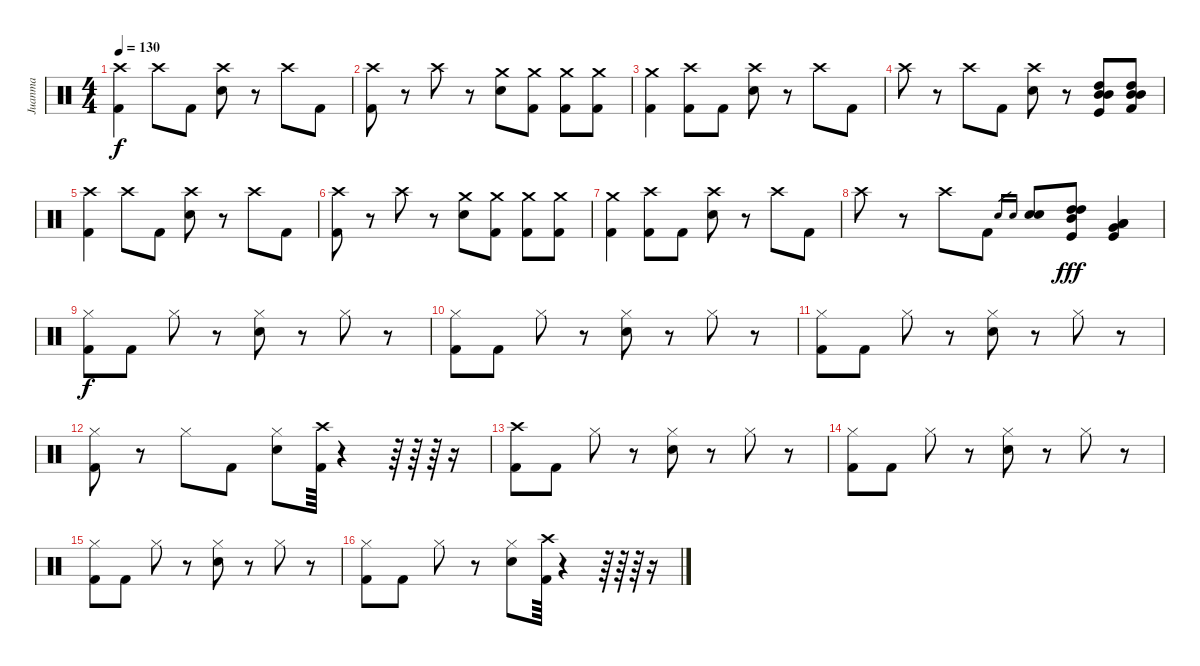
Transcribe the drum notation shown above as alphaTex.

\track ("Juanma" "Juanma") {instrument percussion}
\staff {score}
\articulation defaults
\ts (4 4)
\tempo 130
\clef neutral
\ks c
("Crash high (hit)" "Kick (hit) 2").4{dy f} "Crash high (hit)".8 "Kick (hit) 2".8 ("Crash high (hit)" "Electric Snare (hit)").8 r.8 "Crash high (hit)".8 "Kick (hit) 2".8 |
("Crash high (hit)" "Kick (hit) 2").8 r.8 "Crash high (hit)".8 r.8 ("Crash medium (hit)" "Electric Snare (hit)").8 ("Crash medium (hit)" "Kick (hit) 2").8 ("Crash medium (hit)" "Kick (hit) 2").8 ("Crash medium (hit)" "Kick (hit) 2").8 |
("Crash medium (hit)" "Kick (hit) 2").4 ("Crash high (hit)" "Kick (hit) 2").8 "Kick (hit) 2".8 ("Crash high (hit)" "Electric Snare (hit)").8 r.8 "Crash high (hit)".8 "Kick (hit) 2".8 |
"Crash high (hit)".8 r.8 "Crash high (hit)".8 "Kick (hit) 2".8 ("Crash high (hit)" "Electric Snare (hit)").8 r.8 ("Kick (hit)" "Mid Tom (hit)" "Mid Tom (hit)" "High Tom (hit)").8 ("Kick (hit) 2" "Mid Tom (hit)" "Mid Tom (hit)" "High Tom (hit)").8 |
("Crash high (hit)" "Kick (hit) 2").4 "Crash high (hit)".8 "Kick (hit) 2".8 ("Crash high (hit)" "Electric Snare (hit)").8 r.8 "Crash high (hit)".8 "Kick (hit) 2".8 |
("Crash high (hit)" "Kick (hit) 2").8 r.8 "Crash high (hit)".8 r.8 ("Crash medium (hit)" "Electric Snare (hit)").8 ("Crash medium (hit)" "Kick (hit) 2").8 ("Crash medium (hit)" "Kick (hit) 2").8 ("Crash medium (hit)" "Kick (hit) 2").8 |
("Crash medium (hit)" "Kick (hit) 2").4 ("Crash high (hit)" "Kick (hit) 2").8 "Kick (hit) 2".8 ("Crash high (hit)" "Electric Snare (hit)").8 r.8 "Crash high (hit)".8 "Kick (hit) 2".8 |
"Crash high (hit)".8 r.8 "Crash high (hit)".8 "Kick (hit) 2".8 "Electric Snare (hit)".16{gr} "Electric Snare (hit)".16{gr} ("Electric Snare (hit)" "Electric Snare (hit)").8 ("Kick (hit)" "High Tom (hit)" "High Tom (hit)" "Mid Tom (hit)").8{dy fff} ("Kick (hit)" "Low Tom (hit)" "Low Tom (hit)" "Very Low Tom (hit)").4 |
("Hi-Hat (closed)" "Kick (hit) 2").8{dy f} "Kick (hit) 2".8 "Hi-Hat (closed)".8 r.8 ("Hi-Hat (closed)" "Electric Snare (hit)").8 r.8 "Hi-Hat (closed)".8 r.8 |
("Hi-Hat (closed)" "Kick (hit) 2").8 "Kick (hit) 2".8 "Hi-Hat (closed)".8 r.8 ("Hi-Hat (closed)" "Electric Snare (hit)").8 r.8 "Hi-Hat (closed)".8 r.8 |
("Hi-Hat (closed)" "Kick (hit) 2").8 "Kick (hit) 2".8 "Hi-Hat (closed)".8 r.8 ("Hi-Hat (closed)" "Electric Snare (hit)").8 r.8 "Hi-Hat (closed)".8 r.8 |
("Hi-Hat (closed)" "Kick (hit) 2").8 r.8 "Hi-Hat (closed)".8 "Kick (hit) 2".8 ("Hi-Hat (closed)" "Electric Snare (hit)").8 ("Crash high (hit)" "Kick (hit) 2").64 r.4 r.64 r.64 r.64 r.16 |
("Crash high (hit)" "Kick (hit) 2").8 "Kick (hit) 2".8 "Hi-Hat (closed)".8 r.8 ("Hi-Hat (closed)" "Electric Snare (hit)").8 r.8 "Hi-Hat (closed)".8 r.8 |
("Hi-Hat (closed)" "Kick (hit) 2").8 "Kick (hit) 2".8 "Hi-Hat (closed)".8 r.8 ("Hi-Hat (closed)" "Electric Snare (hit)").8 r.8 "Hi-Hat (closed)".8 r.8 |
("Hi-Hat (closed)" "Kick (hit) 2").8 "Kick (hit) 2".8 "Hi-Hat (closed)".8 r.8 ("Hi-Hat (closed)" "Electric Snare (hit)").8 r.8 "Hi-Hat (closed)".8 r.8 |
("Hi-Hat (closed)" "Kick (hit) 2").8 "Kick (hit) 2".8 "Hi-Hat (closed)".8 r.8 ("Hi-Hat (closed)" "Electric Snare (hit)").8 ("Crash high (hit)" "Kick (hit) 2").64 r.4 r.64 r.64 r.64 r.16
